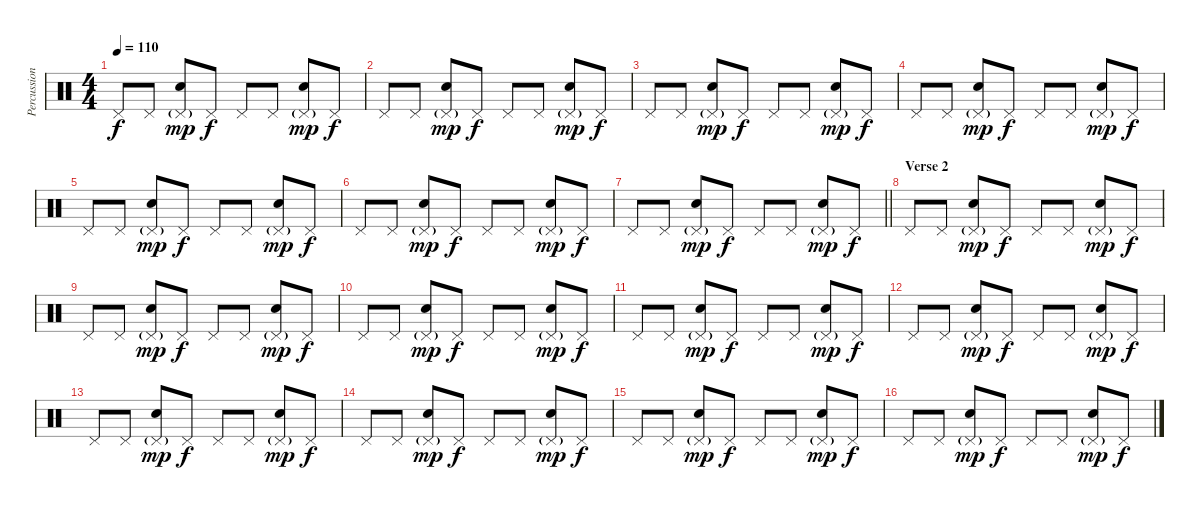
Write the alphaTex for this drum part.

\track ("Percussion" "Percussion") {instrument percussion}
\staff {score}
\articulation defaults
\ts (4 4)
\tempo 110
\clef neutral
\ks c "Pedal Hi-Hat (hit)".8{dy f} "Pedal Hi-Hat (hit)".8
("Pedal Hi-Hat (hit)"{g} "Electric Snare (hit)").8{dy mp} "Pedal Hi-Hat (hit)".8{dy f} "Pedal Hi-Hat (hit)".8 "Pedal Hi-Hat (hit)".8 ("Pedal Hi-Hat (hit)"{g} "Electric Snare (hit)").8{dy mp} "Pedal Hi-Hat (hit)".8{dy f} |
"Pedal Hi-Hat (hit)".8 "Pedal Hi-Hat (hit)".8 ("Pedal Hi-Hat (hit)"{g} "Electric Snare (hit)").8{dy mp} "Pedal Hi-Hat (hit)".8{dy f} "Pedal Hi-Hat (hit)".8 "Pedal Hi-Hat (hit)".8 ("Pedal Hi-Hat (hit)"{g} "Electric Snare (hit)").8{dy mp} "Pedal Hi-Hat (hit)".8{dy f} |
"Pedal Hi-Hat (hit)".8 "Pedal Hi-Hat (hit)".8 ("Pedal Hi-Hat (hit)"{g} "Electric Snare (hit)").8{dy mp} "Pedal Hi-Hat (hit)".8{dy f} "Pedal Hi-Hat (hit)".8 "Pedal Hi-Hat (hit)".8 ("Pedal Hi-Hat (hit)"{g} "Electric Snare (hit)").8{dy mp} "Pedal Hi-Hat (hit)".8{dy f} |
"Pedal Hi-Hat (hit)".8 "Pedal Hi-Hat (hit)".8 ("Pedal Hi-Hat (hit)"{g} "Electric Snare (hit)").8{dy mp} "Pedal Hi-Hat (hit)".8{dy f} "Pedal Hi-Hat (hit)".8 "Pedal Hi-Hat (hit)".8 ("Pedal Hi-Hat (hit)"{g} "Electric Snare (hit)").8{dy mp} "Pedal Hi-Hat (hit)".8{dy f} |
"Pedal Hi-Hat (hit)".8 "Pedal Hi-Hat (hit)".8 ("Pedal Hi-Hat (hit)"{g} "Electric Snare (hit)").8{dy mp} "Pedal Hi-Hat (hit)".8{dy f} "Pedal Hi-Hat (hit)".8 "Pedal Hi-Hat (hit)".8 ("Pedal Hi-Hat (hit)"{g} "Electric Snare (hit)").8{dy mp} "Pedal Hi-Hat (hit)".8{dy f} |
"Pedal Hi-Hat (hit)".8 "Pedal Hi-Hat (hit)".8 ("Pedal Hi-Hat (hit)"{g} "Electric Snare (hit)").8{dy mp} "Pedal Hi-Hat (hit)".8{dy f} "Pedal Hi-Hat (hit)".8 "Pedal Hi-Hat (hit)".8 ("Pedal Hi-Hat (hit)"{g} "Electric Snare (hit)").8{dy mp} "Pedal Hi-Hat (hit)".8{dy f} |
\barLineRight lightlight "Pedal Hi-Hat (hit)".8 "Pedal Hi-Hat (hit)".8
("Pedal Hi-Hat (hit)"{g} "Electric Snare (hit)").8{dy mp} "Pedal Hi-Hat (hit)".8{dy f} "Pedal Hi-Hat (hit)".8 "Pedal Hi-Hat (hit)".8 ("Pedal Hi-Hat (hit)"{g} "Electric Snare (hit)").8{dy mp} "Pedal Hi-Hat (hit)".8{dy f} |
\section ("" "Verse 2")
"Pedal Hi-Hat (hit)".8 "Pedal Hi-Hat (hit)".8 ("Pedal Hi-Hat (hit)"{g} "Electric Snare (hit)").8{dy mp} "Pedal Hi-Hat (hit)".8{dy f} "Pedal Hi-Hat (hit)".8 "Pedal Hi-Hat (hit)".8 ("Pedal Hi-Hat (hit)"{g} "Electric Snare (hit)").8{dy mp} "Pedal Hi-Hat (hit)".8{dy f} |
"Pedal Hi-Hat (hit)".8 "Pedal Hi-Hat (hit)".8 ("Pedal Hi-Hat (hit)"{g} "Electric Snare (hit)").8{dy mp} "Pedal Hi-Hat (hit)".8{dy f} "Pedal Hi-Hat (hit)".8 "Pedal Hi-Hat (hit)".8 ("Pedal Hi-Hat (hit)"{g} "Electric Snare (hit)").8{dy mp} "Pedal Hi-Hat (hit)".8{dy f} |
"Pedal Hi-Hat (hit)".8 "Pedal Hi-Hat (hit)".8 ("Pedal Hi-Hat (hit)"{g} "Electric Snare (hit)").8{dy mp} "Pedal Hi-Hat (hit)".8{dy f} "Pedal Hi-Hat (hit)".8 "Pedal Hi-Hat (hit)".8 ("Pedal Hi-Hat (hit)"{g} "Electric Snare (hit)").8{dy mp} "Pedal Hi-Hat (hit)".8{dy f} |
"Pedal Hi-Hat (hit)".8 "Pedal Hi-Hat (hit)".8 ("Pedal Hi-Hat (hit)"{g} "Electric Snare (hit)").8{dy mp} "Pedal Hi-Hat (hit)".8{dy f} "Pedal Hi-Hat (hit)".8 "Pedal Hi-Hat (hit)".8 ("Pedal Hi-Hat (hit)"{g} "Electric Snare (hit)").8{dy mp} "Pedal Hi-Hat (hit)".8{dy f} |
"Pedal Hi-Hat (hit)".8 "Pedal Hi-Hat (hit)".8 ("Pedal Hi-Hat (hit)"{g} "Electric Snare (hit)").8{dy mp} "Pedal Hi-Hat (hit)".8{dy f} "Pedal Hi-Hat (hit)".8 "Pedal Hi-Hat (hit)".8 ("Pedal Hi-Hat (hit)"{g} "Electric Snare (hit)").8{dy mp} "Pedal Hi-Hat (hit)".8{dy f} |
"Pedal Hi-Hat (hit)".8 "Pedal Hi-Hat (hit)".8 ("Pedal Hi-Hat (hit)"{g} "Electric Snare (hit)").8{dy mp} "Pedal Hi-Hat (hit)".8{dy f} "Pedal Hi-Hat (hit)".8 "Pedal Hi-Hat (hit)".8 ("Pedal Hi-Hat (hit)"{g} "Electric Snare (hit)").8{dy mp} "Pedal Hi-Hat (hit)".8{dy f} |
"Pedal Hi-Hat (hit)".8 "Pedal Hi-Hat (hit)".8 ("Pedal Hi-Hat (hit)"{g} "Electric Snare (hit)").8{dy mp} "Pedal Hi-Hat (hit)".8{dy f} "Pedal Hi-Hat (hit)".8 "Pedal Hi-Hat (hit)".8 ("Pedal Hi-Hat (hit)"{g} "Electric Snare (hit)").8{dy mp} "Pedal Hi-Hat (hit)".8{dy f} |
"Pedal Hi-Hat (hit)".8 "Pedal Hi-Hat (hit)".8 ("Pedal Hi-Hat (hit)"{g} "Electric Snare (hit)").8{dy mp} "Pedal Hi-Hat (hit)".8{dy f} "Pedal Hi-Hat (hit)".8 "Pedal Hi-Hat (hit)".8 ("Pedal Hi-Hat (hit)"{g} "Electric Snare (hit)").8{dy mp} "Pedal Hi-Hat (hit)".8{dy f} |
"Pedal Hi-Hat (hit)".8 "Pedal Hi-Hat (hit)".8 ("Pedal Hi-Hat (hit)"{g} "Electric Snare (hit)").8{dy mp} "Pedal Hi-Hat (hit)".8{dy f} "Pedal Hi-Hat (hit)".8 "Pedal Hi-Hat (hit)".8 ("Pedal Hi-Hat (hit)"{g} "Electric Snare (hit)").8{dy mp} "Pedal Hi-Hat (hit)".8{dy f}
